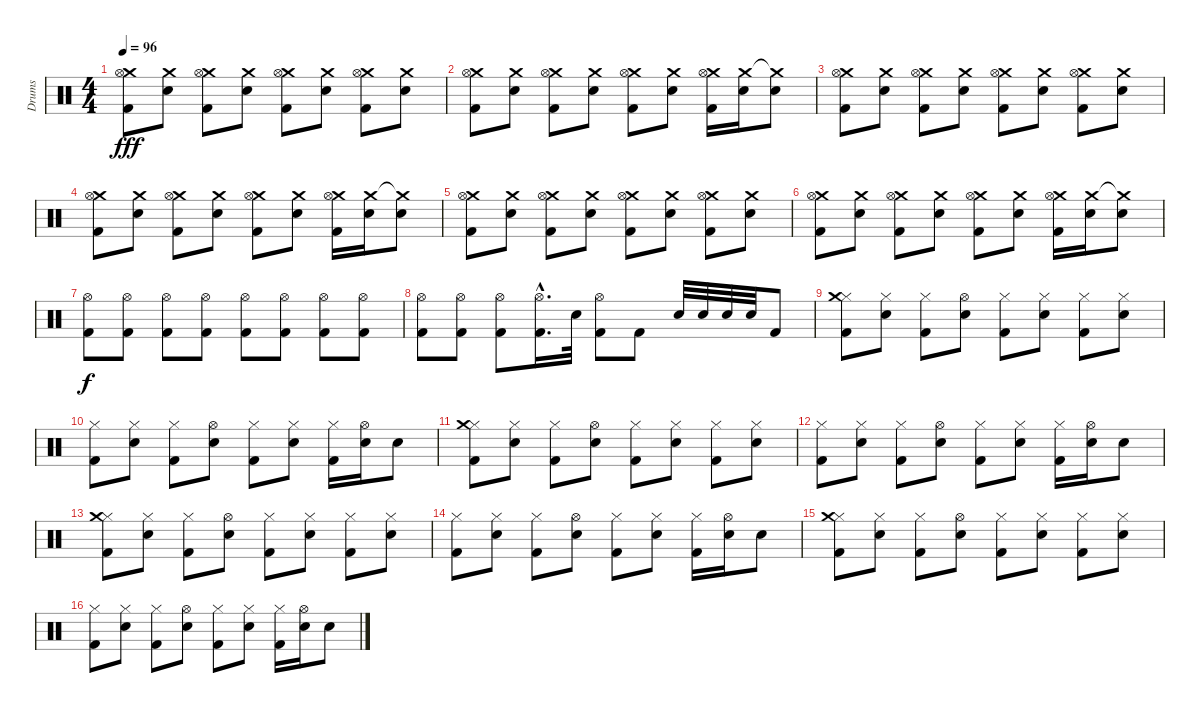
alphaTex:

\track ("Drums" "Drums") {instrument percussion}
\staff {score}
\articulation defaults
\ts (4 4)
\tempo 96
\clef neutral
\ks c
("Crash medium (hit)" "Hi-Hat (open)" "Kick (hit) 2").8{dy fff} ("Crash medium (hit)" "Snare (hit) 2").8 ("Crash medium (hit)" "Hi-Hat (open)" "Kick (hit) 2").8 ("Crash medium (hit)" "Snare (hit) 2").8 ("Crash medium (hit)" "Hi-Hat (open)" "Kick (hit) 2").8 ("Crash medium (hit)" "Snare (hit) 2").8 ("Crash medium (hit)" "Hi-Hat (open)" "Kick (hit) 2").8 ("Crash medium (hit)" "Snare (hit) 2").8 |
("Crash medium (hit)" "Hi-Hat (open)" "Kick (hit) 2").8 ("Crash medium (hit)" "Snare (hit) 2").8 ("Crash medium (hit)" "Hi-Hat (open)" "Kick (hit) 2").8 ("Crash medium (hit)" "Snare (hit) 2").8 ("Crash medium (hit)" "Hi-Hat (open)" "Kick (hit) 2").8 ("Crash medium (hit)" "Snare (hit) 2").8 ("Crash medium (hit)" "Hi-Hat (open)" "Kick (hit) 2").16 ("Crash medium (hit)" "Snare (hit) 2").16 ("Crash medium (hit)"{t} "Snare (hit) 2").8 |
("Crash medium (hit)" "Hi-Hat (open)" "Kick (hit) 2").8 ("Crash medium (hit)" "Snare (hit) 2").8 ("Crash medium (hit)" "Hi-Hat (open)" "Kick (hit) 2").8 ("Crash medium (hit)" "Snare (hit) 2").8 ("Crash medium (hit)" "Hi-Hat (open)" "Kick (hit) 2").8 ("Crash medium (hit)" "Snare (hit) 2").8 ("Crash medium (hit)" "Hi-Hat (open)" "Kick (hit) 2").8 ("Crash medium (hit)" "Snare (hit) 2").8 |
("Crash medium (hit)" "Hi-Hat (open)" "Kick (hit) 2").8 ("Crash medium (hit)" "Snare (hit) 2").8 ("Crash medium (hit)" "Hi-Hat (open)" "Kick (hit) 2").8 ("Crash medium (hit)" "Snare (hit) 2").8 ("Crash medium (hit)" "Hi-Hat (open)" "Kick (hit) 2").8 ("Crash medium (hit)" "Snare (hit) 2").8 ("Crash medium (hit)" "Hi-Hat (open)" "Kick (hit) 2").16 ("Crash medium (hit)" "Snare (hit) 2").16 ("Crash medium (hit)"{t} "Snare (hit) 2").8 |
("Crash medium (hit)" "Hi-Hat (open)" "Kick (hit) 2").8 ("Crash medium (hit)" "Snare (hit) 2").8 ("Crash medium (hit)" "Hi-Hat (open)" "Kick (hit) 2").8 ("Crash medium (hit)" "Snare (hit) 2").8 ("Crash medium (hit)" "Hi-Hat (open)" "Kick (hit) 2").8 ("Crash medium (hit)" "Snare (hit) 2").8 ("Crash medium (hit)" "Hi-Hat (open)" "Kick (hit) 2").8 ("Crash medium (hit)" "Snare (hit) 2").8 |
("Crash medium (hit)" "Hi-Hat (open)" "Kick (hit) 2").8 ("Crash medium (hit)" "Snare (hit) 2").8 ("Crash medium (hit)" "Hi-Hat (open)" "Kick (hit) 2").8 ("Crash medium (hit)" "Snare (hit) 2").8 ("Crash medium (hit)" "Hi-Hat (open)" "Kick (hit) 2").8 ("Crash medium (hit)" "Snare (hit) 2").8 ("Crash medium (hit)" "Hi-Hat (open)" "Kick (hit) 2").16 ("Crash medium (hit)" "Snare (hit) 2").16 ("Crash medium (hit)"{t} "Snare (hit) 2").8 |
("Hi-Hat (open)" "Kick (hit) 2").8{dy f volume 8} ("Hi-Hat (open)" "Kick (hit) 2").8{volume 13} ("Hi-Hat (open)" "Kick (hit) 2").8 ("Hi-Hat (open)" "Kick (hit) 2").8 ("Hi-Hat (open)" "Kick (hit) 2").8 ("Hi-Hat (open)" "Kick (hit) 2").8 ("Hi-Hat (open)" "Kick (hit) 2").8 ("Hi-Hat (open)" "Kick (hit) 2").8 |
("Hi-Hat (open)" "Kick (hit) 2").8 ("Hi-Hat (open)" "Kick (hit) 2").8 ("Hi-Hat (open)" "Kick (hit) 2").8 ("Hi-Hat (open)"{hac} "Kick (hit) 2"{hac}).16{d} "Snare (hit) 2".32 ("Hi-Hat (open)" "Kick (hit) 2").8 "Kick (hit) 2".8 "Snare (hit) 2".32 "Snare (hit) 2".32 "Snare (hit) 2".32 "Snare (hit) 2".32 "Kick (hit) 2".8 |
("Hi-Hat (closed)" "Crash medium (hit)" "Kick (hit) 2").8 ("Hi-Hat (closed)" "Snare (hit) 2").8 ("Hi-Hat (closed)" "Kick (hit) 2").8 ("Hi-Hat (open)" "Snare (hit) 2").8 ("Hi-Hat (closed)" "Kick (hit) 2").8 ("Hi-Hat (closed)" "Snare (hit) 2").8 ("Hi-Hat (closed)" "Kick (hit) 2").8 ("Hi-Hat (closed)" "Snare (hit) 2").8 |
("Hi-Hat (closed)" "Kick (hit) 2").8 ("Hi-Hat (closed)" "Snare (hit) 2").8 ("Hi-Hat (closed)" "Kick (hit) 2").8 ("Hi-Hat (open)" "Snare (hit) 2").8 ("Hi-Hat (closed)" "Kick (hit) 2").8 ("Hi-Hat (closed)" "Snare (hit) 2").8 ("Hi-Hat (closed)" "Kick (hit) 2").16 ("Hi-Hat (open)" "Snare (hit) 2").16 "Snare (hit) 2".8 |
("Hi-Hat (closed)" "Crash medium (hit)" "Kick (hit) 2").8 ("Hi-Hat (closed)" "Snare (hit) 2").8 ("Hi-Hat (closed)" "Kick (hit) 2").8 ("Hi-Hat (open)" "Snare (hit) 2").8 ("Hi-Hat (closed)" "Kick (hit) 2").8 ("Hi-Hat (closed)" "Snare (hit) 2").8 ("Hi-Hat (closed)" "Kick (hit) 2").8 ("Hi-Hat (closed)" "Snare (hit) 2").8 |
("Hi-Hat (closed)" "Kick (hit) 2").8 ("Hi-Hat (closed)" "Snare (hit) 2").8 ("Hi-Hat (closed)" "Kick (hit) 2").8 ("Hi-Hat (open)" "Snare (hit) 2").8 ("Hi-Hat (closed)" "Kick (hit) 2").8 ("Hi-Hat (closed)" "Snare (hit) 2").8 ("Hi-Hat (closed)" "Kick (hit) 2").16 ("Hi-Hat (open)" "Snare (hit) 2").16 "Snare (hit) 2".8 |
("Hi-Hat (closed)" "Crash medium (hit)" "Kick (hit) 2").8 ("Hi-Hat (closed)" "Snare (hit) 2").8 ("Hi-Hat (closed)" "Kick (hit) 2").8 ("Hi-Hat (open)" "Snare (hit) 2").8 ("Hi-Hat (closed)" "Kick (hit) 2").8 ("Hi-Hat (closed)" "Snare (hit) 2").8 ("Hi-Hat (closed)" "Kick (hit) 2").8 ("Hi-Hat (closed)" "Snare (hit) 2").8 |
("Hi-Hat (closed)" "Kick (hit) 2").8 ("Hi-Hat (closed)" "Snare (hit) 2").8 ("Hi-Hat (closed)" "Kick (hit) 2").8 ("Hi-Hat (open)" "Snare (hit) 2").8 ("Hi-Hat (closed)" "Kick (hit) 2").8 ("Hi-Hat (closed)" "Snare (hit) 2").8 ("Hi-Hat (closed)" "Kick (hit) 2").16 ("Hi-Hat (open)" "Snare (hit) 2").16 "Snare (hit) 2".8 |
("Hi-Hat (closed)" "Crash medium (hit)" "Kick (hit) 2").8 ("Hi-Hat (closed)" "Snare (hit) 2").8 ("Hi-Hat (closed)" "Kick (hit) 2").8 ("Hi-Hat (open)" "Snare (hit) 2").8 ("Hi-Hat (closed)" "Kick (hit) 2").8 ("Hi-Hat (closed)" "Snare (hit) 2").8 ("Hi-Hat (closed)" "Kick (hit) 2").8 ("Hi-Hat (closed)" "Snare (hit) 2").8 |
("Hi-Hat (closed)" "Kick (hit) 2").8 ("Hi-Hat (closed)" "Snare (hit) 2").8 ("Hi-Hat (closed)" "Kick (hit) 2").8 ("Hi-Hat (open)" "Snare (hit) 2").8 ("Hi-Hat (closed)" "Kick (hit) 2").8 ("Hi-Hat (closed)" "Snare (hit) 2").8 ("Hi-Hat (closed)" "Kick (hit) 2").16 ("Hi-Hat (open)" "Snare (hit) 2").16 "Snare (hit) 2".8
